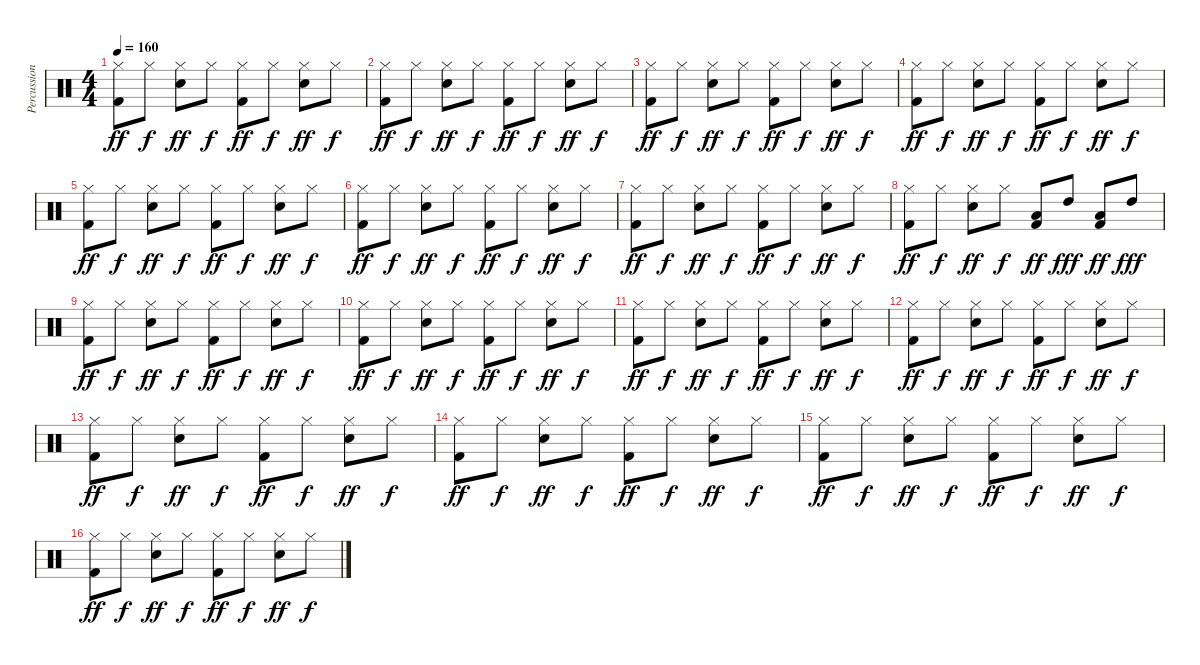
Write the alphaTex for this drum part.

\track ("Percussion" "Percussion") {instrument percussion}
\staff {score}
\articulation defaults
\ts (4 4)
\tempo 160
\clef neutral
\ks c
("Hi-Hat (closed)" "Kick (hit) 2").8{dy ff} "Hi-Hat (closed)".8{dy f} ("Hi-Hat (closed)" "Snare (hit) 2").8{dy ff} "Hi-Hat (closed)".8{dy f} ("Hi-Hat (closed)" "Kick (hit) 2").8{dy ff} "Hi-Hat (closed)".8{dy f} ("Hi-Hat (closed)" "Snare (hit) 2").8{dy ff} "Hi-Hat (closed)".8{dy f} |
("Hi-Hat (closed)" "Kick (hit) 2").8{dy ff} "Hi-Hat (closed)".8{dy f} ("Hi-Hat (closed)" "Snare (hit) 2").8{dy ff} "Hi-Hat (closed)".8{dy f} ("Hi-Hat (closed)" "Kick (hit) 2").8{dy ff} "Hi-Hat (closed)".8{dy f} ("Hi-Hat (closed)" "Snare (hit) 2").8{dy ff} "Hi-Hat (closed)".8{dy f} |
("Hi-Hat (closed)" "Kick (hit) 2").8{dy ff} "Hi-Hat (closed)".8{dy f} ("Hi-Hat (closed)" "Snare (hit) 2").8{dy ff} "Hi-Hat (closed)".8{dy f} ("Hi-Hat (closed)" "Kick (hit) 2").8{dy ff} "Hi-Hat (closed)".8{dy f} ("Hi-Hat (closed)" "Snare (hit) 2").8{dy ff} "Hi-Hat (closed)".8{dy f} |
("Hi-Hat (closed)" "Kick (hit) 2").8{dy ff} "Hi-Hat (closed)".8{dy f} ("Hi-Hat (closed)" "Snare (hit) 2").8{dy ff} "Hi-Hat (closed)".8{dy f} ("Hi-Hat (closed)" "Kick (hit) 2").8{dy ff} "Hi-Hat (closed)".8{dy f} ("Hi-Hat (closed)" "Snare (hit) 2").8{dy ff} "Hi-Hat (closed)".8{dy f} |
("Hi-Hat (closed)" "Kick (hit) 2").8{dy ff} "Hi-Hat (closed)".8{dy f} ("Hi-Hat (closed)" "Snare (hit) 2").8{dy ff} "Hi-Hat (closed)".8{dy f} ("Hi-Hat (closed)" "Kick (hit) 2").8{dy ff} "Hi-Hat (closed)".8{dy f} ("Hi-Hat (closed)" "Snare (hit) 2").8{dy ff} "Hi-Hat (closed)".8{dy f} |
("Hi-Hat (closed)" "Kick (hit) 2").8{dy ff} "Hi-Hat (closed)".8{dy f} ("Hi-Hat (closed)" "Snare (hit) 2").8{dy ff} "Hi-Hat (closed)".8{dy f} ("Hi-Hat (closed)" "Kick (hit) 2").8{dy ff} "Hi-Hat (closed)".8{dy f} ("Hi-Hat (closed)" "Snare (hit) 2").8{dy ff} "Hi-Hat (closed)".8{dy f} |
("Hi-Hat (closed)" "Kick (hit) 2").8{dy ff} "Hi-Hat (closed)".8{dy f} ("Hi-Hat (closed)" "Snare (hit) 2").8{dy ff} "Hi-Hat (closed)".8{dy f} ("Hi-Hat (closed)" "Kick (hit) 2").8{dy ff} "Hi-Hat (closed)".8{dy f} ("Hi-Hat (closed)" "Snare (hit) 2").8{dy ff} "Hi-Hat (closed)".8{dy f} |
("Hi-Hat (closed)" "Kick (hit) 2").8{dy ff} "Hi-Hat (closed)".8{dy f} ("Hi-Hat (closed)" "Snare (hit) 2").8{dy ff} "Hi-Hat (closed)".8{dy f} ("Low Floor Tom (hit)" "Kick (hit) 2").8{dy ff} "High Tom (hit)".8{dy fff} ("Low Floor Tom (hit)" "Kick (hit) 2").8{dy ff} "High Tom (hit)".8{dy fff} |
("Hi-Hat (closed)" "Kick (hit) 2").8{dy ff} "Hi-Hat (closed)".8{dy f} ("Hi-Hat (closed)" "Snare (hit) 2").8{dy ff} "Hi-Hat (closed)".8{dy f} ("Hi-Hat (closed)" "Kick (hit) 2").8{dy ff} "Hi-Hat (closed)".8{dy f} ("Hi-Hat (closed)" "Snare (hit) 2").8{dy ff} "Hi-Hat (closed)".8{dy f} |
("Hi-Hat (closed)" "Kick (hit) 2").8{dy ff} "Hi-Hat (closed)".8{dy f} ("Hi-Hat (closed)" "Snare (hit) 2").8{dy ff} "Hi-Hat (closed)".8{dy f} ("Hi-Hat (closed)" "Kick (hit) 2").8{dy ff} "Hi-Hat (closed)".8{dy f} ("Hi-Hat (closed)" "Snare (hit) 2").8{dy ff} "Hi-Hat (closed)".8{dy f} |
("Hi-Hat (closed)" "Kick (hit) 2").8{dy ff} "Hi-Hat (closed)".8{dy f} ("Hi-Hat (closed)" "Snare (hit) 2").8{dy ff} "Hi-Hat (closed)".8{dy f} ("Hi-Hat (closed)" "Kick (hit) 2").8{dy ff} "Hi-Hat (closed)".8{dy f} ("Hi-Hat (closed)" "Snare (hit) 2").8{dy ff} "Hi-Hat (closed)".8{dy f} |
("Hi-Hat (closed)" "Kick (hit) 2").8{dy ff} "Hi-Hat (closed)".8{dy f} ("Hi-Hat (closed)" "Snare (hit) 2").8{dy ff} "Hi-Hat (closed)".8{dy f} ("Hi-Hat (closed)" "Kick (hit) 2").8{dy ff} "Hi-Hat (closed)".8{dy f} ("Hi-Hat (closed)" "Snare (hit) 2").8{dy ff} "Hi-Hat (closed)".8{dy f} |
("Hi-Hat (closed)" "Kick (hit) 2").8{dy ff} "Hi-Hat (closed)".8{dy f} ("Hi-Hat (closed)" "Snare (hit) 2").8{dy ff} "Hi-Hat (closed)".8{dy f} ("Hi-Hat (closed)" "Kick (hit) 2").8{dy ff} "Hi-Hat (closed)".8{dy f} ("Hi-Hat (closed)" "Snare (hit) 2").8{dy ff} "Hi-Hat (closed)".8{dy f} |
("Hi-Hat (closed)" "Kick (hit) 2").8{dy ff} "Hi-Hat (closed)".8{dy f} ("Hi-Hat (closed)" "Snare (hit) 2").8{dy ff} "Hi-Hat (closed)".8{dy f} ("Hi-Hat (closed)" "Kick (hit) 2").8{dy ff} "Hi-Hat (closed)".8{dy f} ("Hi-Hat (closed)" "Snare (hit) 2").8{dy ff} "Hi-Hat (closed)".8{dy f} |
("Hi-Hat (closed)" "Kick (hit) 2").8{dy ff} "Hi-Hat (closed)".8{dy f} ("Hi-Hat (closed)" "Snare (hit) 2").8{dy ff} "Hi-Hat (closed)".8{dy f} ("Hi-Hat (closed)" "Kick (hit) 2").8{dy ff} "Hi-Hat (closed)".8{dy f} ("Hi-Hat (closed)" "Snare (hit) 2").8{dy ff} "Hi-Hat (closed)".8{dy f} |
("Hi-Hat (closed)" "Kick (hit) 2").8{dy ff} "Hi-Hat (closed)".8{dy f} ("Hi-Hat (closed)" "Snare (hit) 2").8{dy ff} "Hi-Hat (closed)".8{dy f} ("Hi-Hat (closed)" "Kick (hit) 2").8{dy ff} "Hi-Hat (closed)".8{dy f} ("Hi-Hat (closed)" "Snare (hit) 2").8{dy ff} "Hi-Hat (closed)".8{dy f}
